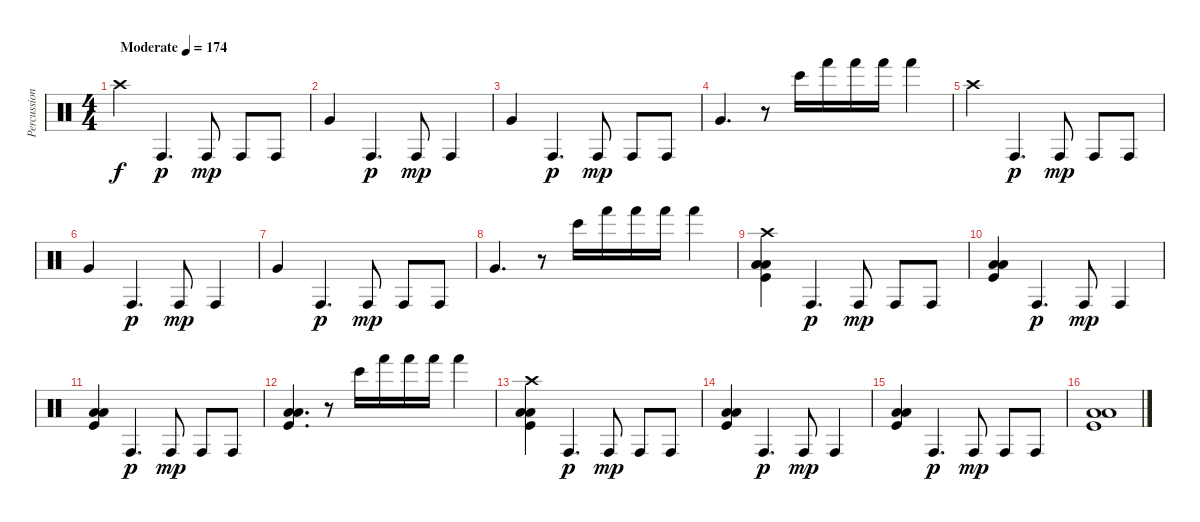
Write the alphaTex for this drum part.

\track ("Percussion" "Percussion") {instrument percussion}
\staff {score}
\articulation defaults
\ts (4 4)
\tempo (174 "Moderate")
\clef neutral
\ks c "Crash high (hit)".4{dy f} "Conga high (hit)".4{d dy p} "Conga high (hit)".8{dy mp} "Conga high (hit)".8 "Conga high (hit)".8
|
"Very Low Tom (hit)".4 "Conga high (hit)".4{d dy p} "Conga high (hit)".8{dy mp} "Conga high (hit)".4 |
"Very Low Tom (hit)".4 "Conga high (hit)".4{d dy p} "Conga high (hit)".8{dy mp} "Conga high (hit)".8 "Conga high (hit)".8 |
"Very Low Tom (hit)".4{d} r.8 "Bongo High (hit)".16 "Hand (hit)".16 "Hand (hit)".16 "Hand (hit)".16 "Hand (hit)".4 |
"Crash high (hit)".4 "Conga high (hit)".4{d dy p} "Conga high (hit)".8{dy mp} "Conga high (hit)".8 "Conga high (hit)".8 |
"Very Low Tom (hit)".4 "Conga high (hit)".4{d dy p} "Conga high (hit)".8{dy mp} "Conga high (hit)".4 |
"Very Low Tom (hit)".4 "Conga high (hit)".4{d dy p} "Conga high (hit)".8{dy mp} "Conga high (hit)".8 "Conga high (hit)".8 |
"Very Low Tom (hit)".4{d} r.8 "Bongo High (hit)".16 "Hand (hit)".16 "Hand (hit)".16 "Hand (hit)".16 "Hand (hit)".4 |
("Crash high (hit)" "Low Floor Tom (hit)" "Low Floor Tom (hit)" "Kick (hit)").4 "Conga high (hit)".4{d dy p} "Conga high (hit)".8{dy mp} "Conga high (hit)".8 "Conga high (hit)".8 |
("Low Floor Tom (hit)" "Low Floor Tom (hit)" "Kick (hit)").4 "Conga high (hit)".4{d dy p} "Conga high (hit)".8{dy mp} "Conga high (hit)".4 |
("Low Floor Tom (hit)" "Low Floor Tom (hit)" "Kick (hit)").4 "Conga high (hit)".4{d dy p} "Conga high (hit)".8{dy mp} "Conga high (hit)".8 "Conga high (hit)".8 |
("Low Floor Tom (hit)" "Low Floor Tom (hit)" "Kick (hit)").4{d} r.8 "Bongo High (hit)".16 "Hand (hit)".16 "Hand (hit)".16 "Hand (hit)".16 "Hand (hit)".4 |
("Crash high (hit)" "Low Floor Tom (hit)" "Low Floor Tom (hit)" "Kick (hit)").4 "Conga high (hit)".4{d dy p} "Conga high (hit)".8{dy mp} "Conga high (hit)".8 "Conga high (hit)".8 |
("Low Floor Tom (hit)" "Low Floor Tom (hit)" "Kick (hit)").4 "Conga high (hit)".4{d dy p} "Conga high (hit)".8{dy mp} "Conga high (hit)".4 |
("Low Floor Tom (hit)" "Low Floor Tom (hit)" "Kick (hit)").4 "Conga high (hit)".4{d dy p} "Conga high (hit)".8{dy mp} "Conga high (hit)".8 "Conga high (hit)".8 |
("Low Floor Tom (hit)" "Low Floor Tom (hit)" "Kick (hit)").1
